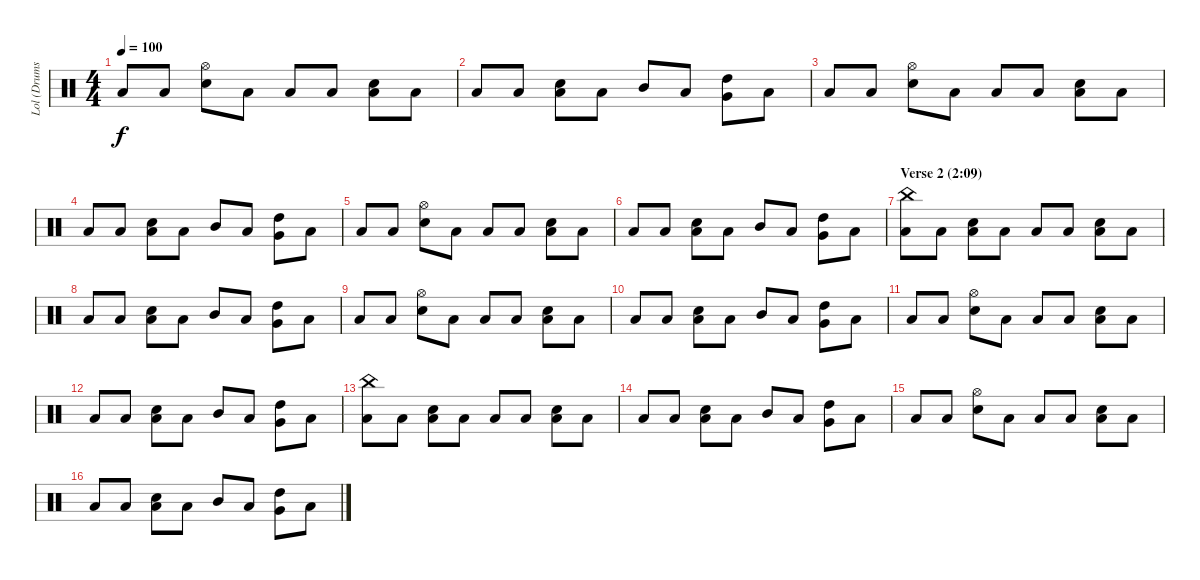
\track ("Lol (Drums)" "Lol (Drums") {instrument percussion}
\staff {score}
\articulation defaults
\ts (4 4)
\tempo 100
\clef neutral
\ks c "Low Tom (hit)".8{dy f} "Low Tom (hit)".8
("Hi-Hat (open)" "Snare (hit) 2").8 "Low Tom (hit)".8 "Low Tom (hit)".8 "Low Tom (hit)".8 ("Low Tom (hit)" "Snare (hit) 2").8 "Low Tom (hit)".8 |
"Low Tom (hit)".8 "Low Tom (hit)".8 ("Low Tom (hit)" "Snare (hit) 2").8 "Low Tom (hit)".8 "Mid Tom (hit)".8 "Low Tom (hit)".8 ("High Tom (hit)" "Very Low Tom (hit)").8 "Low Floor Tom (hit)".8 |
"Low Tom (hit)".8 "Low Tom (hit)".8 ("Hi-Hat (open)" "Snare (hit) 2").8 "Low Tom (hit)".8 "Low Tom (hit)".8 "Low Tom (hit)".8 ("Low Tom (hit)" "Snare (hit) 2").8 "Low Tom (hit)".8 |
"Low Tom (hit)".8 "Low Tom (hit)".8 ("Low Tom (hit)" "Snare (hit) 2").8 "Low Tom (hit)".8 "Mid Tom (hit)".8 "Low Tom (hit)".8 ("High Tom (hit)" "Very Low Tom (hit)").8 "Low Floor Tom (hit)".8 |
"Low Tom (hit)".8 "Low Tom (hit)".8 ("Hi-Hat (open)" "Snare (hit) 2").8 "Low Tom (hit)".8 "Low Tom (hit)".8 "Low Tom (hit)".8 ("Low Tom (hit)" "Snare (hit) 2").8 "Low Tom (hit)".8 |
"Low Tom (hit)".8 "Low Tom (hit)".8 ("Low Tom (hit)" "Snare (hit) 2").8 "Low Tom (hit)".8 "Mid Tom (hit)".8 "Low Tom (hit)".8 ("High Tom (hit)" "Very Low Tom (hit)").8 "Low Floor Tom (hit)".8 |
\section ("" "Verse 2 (2:09)")
("China (hit)" "Low Tom (hit)").8 "Low Tom (hit)".8 ("Low Tom (hit)" "Snare (hit) 2").8 "Low Tom (hit)".8 "Low Tom (hit)".8 "Low Tom (hit)".8 ("Low Tom (hit)" "Snare (hit) 2").8 "Low Tom (hit)".8 |
"Low Tom (hit)".8 "Low Tom (hit)".8 ("Low Tom (hit)" "Snare (hit) 2").8 "Low Tom (hit)".8 "Mid Tom (hit)".8 "Low Tom (hit)".8 ("High Tom (hit)" "Very Low Tom (hit)").8 "Low Floor Tom (hit)".8 |
"Low Tom (hit)".8 "Low Tom (hit)".8 ("Hi-Hat (open)" "Snare (hit) 2").8 "Low Tom (hit)".8 "Low Tom (hit)".8 "Low Tom (hit)".8 ("Low Tom (hit)" "Snare (hit) 2").8 "Low Tom (hit)".8 |
"Low Tom (hit)".8 "Low Tom (hit)".8 ("Low Tom (hit)" "Snare (hit) 2").8 "Low Tom (hit)".8 "Mid Tom (hit)".8 "Low Tom (hit)".8 ("High Tom (hit)" "Very Low Tom (hit)").8 "Low Floor Tom (hit)".8 |
"Low Tom (hit)".8 "Low Tom (hit)".8 ("Hi-Hat (open)" "Snare (hit) 2").8 "Low Tom (hit)".8 "Low Tom (hit)".8 "Low Tom (hit)".8 ("Low Tom (hit)" "Snare (hit) 2").8 "Low Tom (hit)".8 |
"Low Tom (hit)".8 "Low Tom (hit)".8 ("Low Tom (hit)" "Snare (hit) 2").8 "Low Tom (hit)".8 "Mid Tom (hit)".8 "Low Tom (hit)".8 ("High Tom (hit)" "Very Low Tom (hit)").8 "Low Floor Tom (hit)".8 |
("China (hit)" "Low Tom (hit)").8 "Low Tom (hit)".8 ("Low Tom (hit)" "Snare (hit) 2").8 "Low Tom (hit)".8 "Low Tom (hit)".8 "Low Tom (hit)".8 ("Low Tom (hit)" "Snare (hit) 2").8 "Low Tom (hit)".8 |
"Low Tom (hit)".8 "Low Tom (hit)".8 ("Low Tom (hit)" "Snare (hit) 2").8 "Low Tom (hit)".8 "Mid Tom (hit)".8 "Low Tom (hit)".8 ("High Tom (hit)" "Very Low Tom (hit)").8 "Low Floor Tom (hit)".8 |
"Low Tom (hit)".8 "Low Tom (hit)".8 ("Hi-Hat (open)" "Snare (hit) 2").8 "Low Tom (hit)".8 "Low Tom (hit)".8 "Low Tom (hit)".8 ("Low Tom (hit)" "Snare (hit) 2").8 "Low Tom (hit)".8 |
"Low Tom (hit)".8 "Low Tom (hit)".8 ("Low Tom (hit)" "Snare (hit) 2").8 "Low Tom (hit)".8 "Mid Tom (hit)".8 "Low Tom (hit)".8 ("High Tom (hit)" "Very Low Tom (hit)").8 "Low Floor Tom (hit)".8
